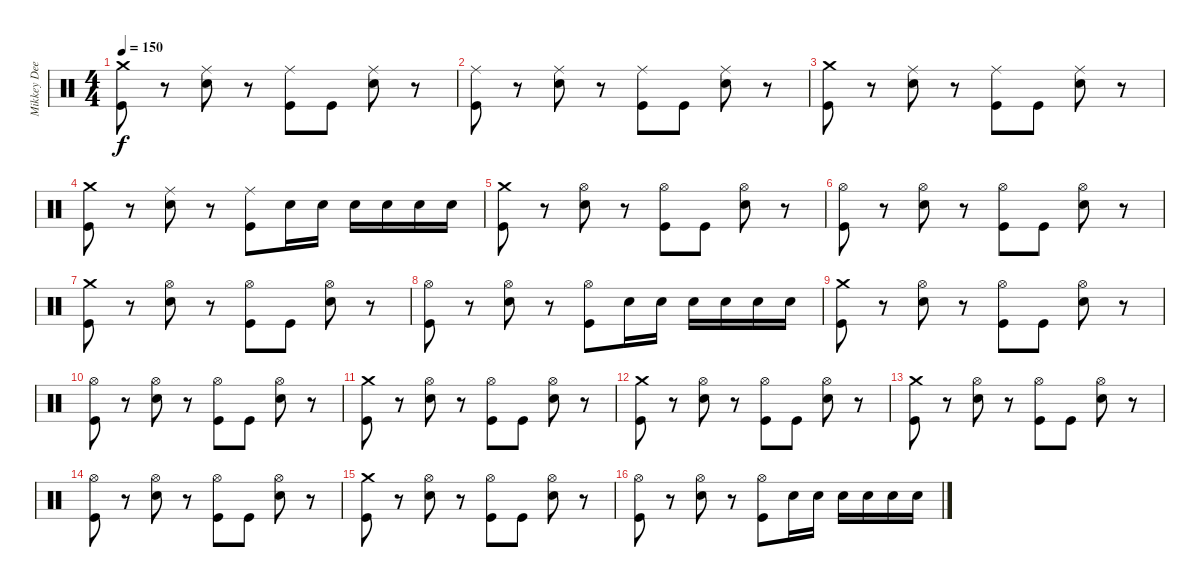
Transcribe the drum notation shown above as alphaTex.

\track ("Mikkey Dee" "Mikkey Dee") {instrument percussion}
\staff {score}
\articulation defaults
\ts (4 4)
\tempo 150
\clef neutral
\ks c
("Crash medium (hit)" "Kick (hit)").8{dy f} r.8 ("Ride (middle)" "Snare (hit) 2").8 r.8 ("Ride (middle)" "Kick (hit)").8 "Kick (hit)".8 ("Ride (middle)" "Snare (hit) 2").8 r.8 |
("Ride (middle)" "Kick (hit)").8 r.8 ("Ride (middle)" "Snare (hit) 2").8 r.8 ("Ride (middle)" "Kick (hit)").8 "Kick (hit)".8 ("Ride (middle)" "Snare (hit) 2").8 r.8 |
("Crash medium (hit)" "Kick (hit)").8 r.8 ("Ride (middle)" "Snare (hit) 2").8 r.8 ("Ride (middle)" "Kick (hit)").8 "Kick (hit)".8 ("Ride (middle)" "Snare (hit) 2").8 r.8 |
("Crash medium (hit)" "Kick (hit)").8 r.8 ("Ride (middle)" "Snare (hit) 2").8 r.8 ("Ride (middle)" "Kick (hit)").8 "Snare (hit) 2".16 "Snare (hit) 2".16 "Snare (hit) 2".16 "Snare (hit) 2".16 "Snare (hit) 2".16 "Snare (hit) 2".16 |
("Crash medium (hit)" "Kick (hit)").8 r.8 ("Hi-Hat (open)" "Snare (hit) 2").8 r.8 ("Hi-Hat (open)" "Kick (hit)").8 "Kick (hit)".8 ("Hi-Hat (open)" "Snare (hit) 2").8 r.8 |
("Hi-Hat (open)" "Kick (hit)").8 r.8 ("Hi-Hat (open)" "Snare (hit) 2").8 r.8 ("Hi-Hat (open)" "Kick (hit)").8 "Kick (hit)".8 ("Hi-Hat (open)" "Snare (hit) 2").8 r.8 |
("Crash medium (hit)" "Kick (hit)").8 r.8 ("Hi-Hat (open)" "Snare (hit) 2").8 r.8 ("Hi-Hat (open)" "Kick (hit)").8 "Kick (hit)".8 ("Hi-Hat (open)" "Snare (hit) 2").8 r.8 |
("Hi-Hat (open)" "Kick (hit)").8 r.8 ("Hi-Hat (open)" "Snare (hit) 2").8 r.8 ("Hi-Hat (open)" "Kick (hit)").8 "Snare (hit) 2".16 "Snare (hit) 2".16 "Snare (hit) 2".16 "Snare (hit) 2".16 "Snare (hit) 2".16 "Snare (hit) 2".16 |
("Crash medium (hit)" "Kick (hit)").8 r.8 ("Hi-Hat (open)" "Snare (hit) 2").8 r.8 ("Hi-Hat (open)" "Kick (hit)").8 "Kick (hit)".8 ("Hi-Hat (open)" "Snare (hit) 2").8 r.8 |
("Hi-Hat (open)" "Kick (hit)").8 r.8 ("Hi-Hat (open)" "Snare (hit) 2").8 r.8 ("Hi-Hat (open)" "Kick (hit)").8 "Kick (hit)".8 ("Hi-Hat (open)" "Snare (hit) 2").8 r.8 |
("Crash medium (hit)" "Kick (hit)").8 r.8 ("Hi-Hat (open)" "Snare (hit) 2").8 r.8 ("Hi-Hat (open)" "Kick (hit)").8 "Kick (hit)".8 ("Hi-Hat (open)" "Snare (hit) 2").8 r.8 |
("Crash medium (hit)" "Kick (hit)").8 r.8 ("Hi-Hat (open)" "Snare (hit) 2").8 r.8 ("Hi-Hat (open)" "Kick (hit)").8 "Kick (hit)".8 ("Hi-Hat (open)" "Snare (hit) 2").8 r.8 |
("Crash medium (hit)" "Kick (hit)").8 r.8 ("Hi-Hat (open)" "Snare (hit) 2").8 r.8 ("Hi-Hat (open)" "Kick (hit)").8 "Kick (hit)".8 ("Hi-Hat (open)" "Snare (hit) 2").8 r.8 |
("Hi-Hat (open)" "Kick (hit)").8 r.8 ("Hi-Hat (open)" "Snare (hit) 2").8 r.8 ("Hi-Hat (open)" "Kick (hit)").8 "Kick (hit)".8 ("Hi-Hat (open)" "Snare (hit) 2").8 r.8 |
("Crash medium (hit)" "Kick (hit)").8 r.8 ("Hi-Hat (open)" "Snare (hit) 2").8 r.8 ("Hi-Hat (open)" "Kick (hit)").8 "Kick (hit)".8 ("Hi-Hat (open)" "Snare (hit) 2").8 r.8 |
("Hi-Hat (open)" "Kick (hit)").8 r.8 ("Hi-Hat (open)" "Snare (hit) 2").8 r.8 ("Hi-Hat (open)" "Kick (hit)").8 "Snare (hit) 2".16 "Snare (hit) 2".16 "Snare (hit) 2".16 "Snare (hit) 2".16 "Snare (hit) 2".16 "Snare (hit) 2".16
